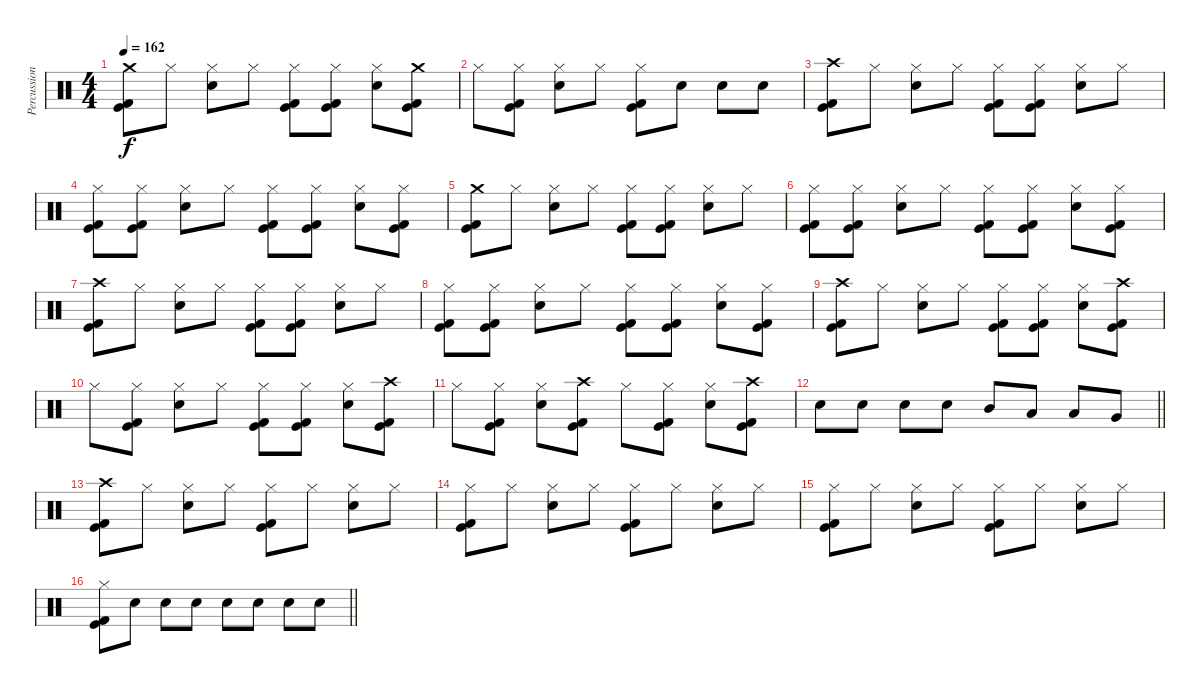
\track ("Percussion" "Percussion") {instrument percussion}
\staff {score}
\articulation defaults
\ts (4 4)
\tempo 162
\clef neutral
\ks c
("Crash medium (hit)" "Kick (hit)" "Kick (hit) 2").8{dy f} "Hi-Hat (closed)".8 ("Hi-Hat (closed)" "Electric Snare (hit)").8 "Hi-Hat (closed)".8 ("Hi-Hat (closed)" "Kick (hit)" "Kick (hit) 2").8 ("Hi-Hat (closed)" "Kick (hit)" "Kick (hit) 2").8 ("Hi-Hat (closed)" "Electric Snare (hit)").8 ("Crash medium (hit)" "Kick (hit)" "Kick (hit) 2").8 |
"Hi-Hat (closed)".8 ("Hi-Hat (closed)" "Kick (hit)" "Kick (hit) 2").8 ("Hi-Hat (closed)" "Electric Snare (hit)").8 "Hi-Hat (closed)".8 ("Hi-Hat (closed)" "Kick (hit)" "Kick (hit) 2").8 "Electric Snare (hit)".8 "Electric Snare (hit)".8 "Electric Snare (hit)".8 |
("Crash high (hit)" "Kick (hit)" "Kick (hit) 2").8 "Hi-Hat (closed)".8 ("Hi-Hat (closed)" "Electric Snare (hit)").8 "Hi-Hat (closed)".8 ("Hi-Hat (closed)" "Kick (hit)" "Kick (hit) 2").8 ("Hi-Hat (closed)" "Kick (hit)" "Kick (hit) 2").8 ("Hi-Hat (closed)" "Electric Snare (hit)").8 "Hi-Hat (closed)".8 |
("Hi-Hat (closed)" "Kick (hit)" "Kick (hit) 2").8 ("Hi-Hat (closed)" "Kick (hit)" "Kick (hit) 2").8 ("Hi-Hat (closed)" "Electric Snare (hit)").8 "Hi-Hat (closed)".8 ("Hi-Hat (closed)" "Kick (hit)" "Kick (hit) 2").8 ("Hi-Hat (closed)" "Kick (hit)" "Kick (hit) 2").8 ("Hi-Hat (closed)" "Electric Snare (hit)").8 ("Hi-Hat (closed)" "Kick (hit)" "Kick (hit) 2").8 |
("Crash medium (hit)" "Kick (hit)" "Kick (hit) 2").8 "Hi-Hat (closed)".8 ("Hi-Hat (closed)" "Electric Snare (hit)").8 "Hi-Hat (closed)".8 ("Hi-Hat (closed)" "Kick (hit)" "Kick (hit) 2").8 ("Hi-Hat (closed)" "Kick (hit)" "Kick (hit) 2").8 ("Hi-Hat (closed)" "Electric Snare (hit)").8 "Hi-Hat (closed)".8 |
("Hi-Hat (closed)" "Kick (hit)" "Kick (hit) 2").8 ("Hi-Hat (closed)" "Kick (hit)" "Kick (hit) 2").8 ("Hi-Hat (closed)" "Electric Snare (hit)").8 "Hi-Hat (closed)".8 ("Hi-Hat (closed)" "Kick (hit)" "Kick (hit) 2").8 ("Hi-Hat (closed)" "Kick (hit)" "Kick (hit) 2").8 ("Hi-Hat (closed)" "Electric Snare (hit)").8 ("Hi-Hat (closed)" "Kick (hit)" "Kick (hit) 2").8 |
("Crash high (hit)" "Kick (hit)" "Kick (hit) 2").8 "Hi-Hat (closed)".8 ("Hi-Hat (closed)" "Electric Snare (hit)").8 "Hi-Hat (closed)".8 ("Hi-Hat (closed)" "Kick (hit)" "Kick (hit) 2").8 ("Hi-Hat (closed)" "Kick (hit)" "Kick (hit) 2").8 ("Hi-Hat (closed)" "Electric Snare (hit)").8 "Hi-Hat (closed)".8 |
("Hi-Hat (closed)" "Kick (hit)" "Kick (hit) 2").8 ("Hi-Hat (closed)" "Kick (hit)" "Kick (hit) 2").8 ("Hi-Hat (closed)" "Electric Snare (hit)").8 "Hi-Hat (closed)".8 ("Hi-Hat (closed)" "Kick (hit)" "Kick (hit) 2").8 ("Hi-Hat (closed)" "Kick (hit)" "Kick (hit) 2").8 ("Hi-Hat (closed)" "Electric Snare (hit)").8 ("Hi-Hat (closed)" "Kick (hit)" "Kick (hit) 2").8 |
("Crash high (hit)" "Kick (hit)" "Kick (hit) 2").8 "Hi-Hat (closed)".8 ("Hi-Hat (closed)" "Electric Snare (hit)").8 "Hi-Hat (closed)".8 ("Hi-Hat (closed)" "Kick (hit)" "Kick (hit) 2").8 ("Hi-Hat (closed)" "Kick (hit)" "Kick (hit) 2").8 ("Hi-Hat (closed)" "Electric Snare (hit)").8 ("Crash high (hit)" "Kick (hit)" "Kick (hit) 2").8 |
"Hi-Hat (closed)".8 ("Hi-Hat (closed)" "Kick (hit)" "Kick (hit) 2").8 ("Hi-Hat (closed)" "Electric Snare (hit)").8 "Hi-Hat (closed)".8 ("Hi-Hat (closed)" "Kick (hit)" "Kick (hit) 2").8 ("Hi-Hat (closed)" "Kick (hit)" "Kick (hit) 2").8 ("Hi-Hat (closed)" "Electric Snare (hit)").8 ("Crash high (hit)" "Kick (hit)" "Kick (hit) 2").8 |
"Hi-Hat (closed)".8 ("Hi-Hat (closed)" "Kick (hit)" "Kick (hit) 2").8 ("Hi-Hat (closed)" "Electric Snare (hit)").8 ("Crash high (hit)" "Kick (hit)" "Kick (hit) 2").8 "Hi-Hat (closed)".8 ("Hi-Hat (closed)" "Kick (hit)" "Kick (hit) 2").8 ("Hi-Hat (closed)" "Electric Snare (hit)").8 ("Crash high (hit)" "Kick (hit)" "Kick (hit) 2").8 |
\barLineRight lightlight "Electric Snare (hit)".8 "Electric Snare (hit)".8 "Electric Snare (hit)".8 "Electric Snare (hit)".8 "Mid Tom (hit)".8 "Low Tom (hit)".8 "Low Tom (hit)".8 "Very Low Tom (hit)".8
|
\section ("" "")
("Crash high (hit)" "Kick (hit)" "Kick (hit) 2").8 "Hi-Hat (closed)".8 ("Hi-Hat (closed)" "Electric Snare (hit)").8 "Hi-Hat (closed)".8 ("Hi-Hat (closed)" "Kick (hit)" "Kick (hit) 2").8 "Hi-Hat (closed)".8 ("Hi-Hat (closed)" "Electric Snare (hit)").8 "Hi-Hat (closed)".8 |
("Hi-Hat (closed)" "Kick (hit)" "Kick (hit) 2").8 "Hi-Hat (closed)".8 ("Hi-Hat (closed)" "Electric Snare (hit)").8 "Hi-Hat (closed)".8 ("Hi-Hat (closed)" "Kick (hit)" "Kick (hit) 2").8 "Hi-Hat (closed)".8 ("Hi-Hat (closed)" "Electric Snare (hit)").8 "Hi-Hat (closed)".8 |
("Hi-Hat (closed)" "Kick (hit)" "Kick (hit) 2").8 "Hi-Hat (closed)".8 ("Hi-Hat (closed)" "Electric Snare (hit)").8 "Hi-Hat (closed)".8 ("Hi-Hat (closed)" "Kick (hit)" "Kick (hit) 2").8 "Hi-Hat (closed)".8 ("Hi-Hat (closed)" "Electric Snare (hit)").8 "Hi-Hat (closed)".8 |
\barLineRight lightlight
("Hi-Hat (closed)" "Kick (hit)" "Kick (hit) 2").8 "Electric Snare (hit)".8 "Electric Snare (hit)".8 "Electric Snare (hit)".8 "Electric Snare (hit)".8 "Electric Snare (hit)".8 "Electric Snare (hit)".8 "Electric Snare (hit)".8
